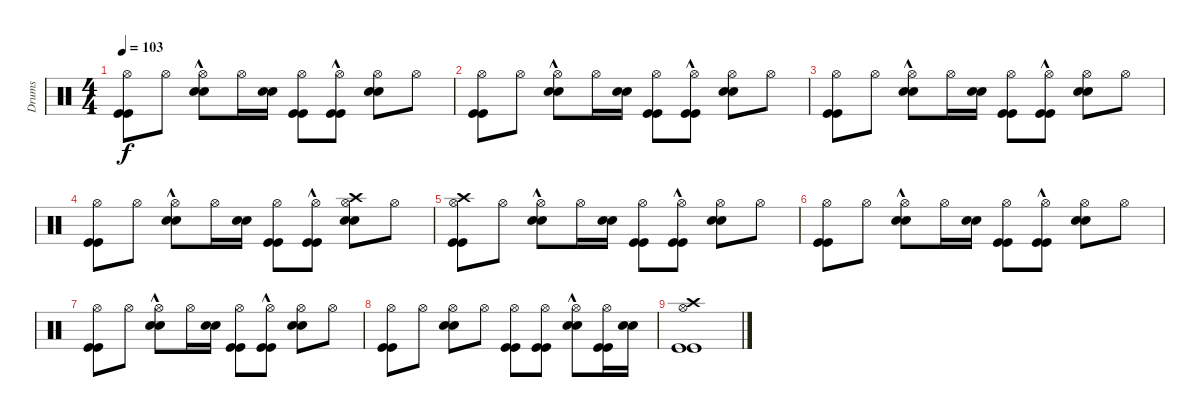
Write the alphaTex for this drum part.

\track ("Drums" "Drums") {instrument percussion}
\staff {score}
\articulation defaults
\ts (4 4)
\tempo 103
\clef neutral
\ks c
("Kick (hit)" "Kick (hit)" "Hi-Hat (open)").8{dy f} "Hi-Hat (open)".8 ("Snare (hit) 2"{hac} "Snare (hit) 2"{hac} "Hi-Hat (open)").8 "Hi-Hat (open)".16 ("Snare (hit) 2" "Snare (hit) 2").16 ("Kick (hit)" "Kick (hit)" "Hi-Hat (open)").8 ("Kick (hit)"{hac} "Kick (hit)"{hac} "Hi-Hat (open)").8 ("Snare (hit) 2" "Snare (hit) 2" "Hi-Hat (open)").8 "Hi-Hat (open)".8 |
("Kick (hit)" "Kick (hit)" "Hi-Hat (open)").8 "Hi-Hat (open)".8 ("Snare (hit) 2"{hac} "Snare (hit) 2"{hac} "Hi-Hat (open)").8 "Hi-Hat (open)".16 ("Snare (hit) 2" "Snare (hit) 2").16 ("Kick (hit)" "Kick (hit)" "Hi-Hat (open)").8 ("Kick (hit)"{hac} "Kick (hit)"{hac} "Hi-Hat (open)").8 ("Snare (hit) 2" "Snare (hit) 2" "Hi-Hat (open)").8 "Hi-Hat (open)".8 |
("Kick (hit)" "Kick (hit)" "Hi-Hat (open)").8 "Hi-Hat (open)".8 ("Snare (hit) 2"{hac} "Snare (hit) 2"{hac} "Hi-Hat (open)").8 "Hi-Hat (open)".16 ("Snare (hit) 2" "Snare (hit) 2").16 ("Kick (hit)" "Kick (hit)" "Hi-Hat (open)").8 ("Kick (hit)"{hac} "Kick (hit)"{hac} "Hi-Hat (open)").8 ("Snare (hit) 2" "Snare (hit) 2" "Hi-Hat (open)").8 "Hi-Hat (open)".8 |
("Kick (hit)" "Kick (hit)" "Hi-Hat (open)").8 "Hi-Hat (open)".8 ("Snare (hit) 2"{hac} "Snare (hit) 2"{hac} "Hi-Hat (open)").8 "Hi-Hat (open)".16 ("Snare (hit) 2" "Snare (hit) 2").16 ("Kick (hit)" "Kick (hit)" "Hi-Hat (open)").8 ("Kick (hit)"{hac} "Kick (hit)"{hac} "Hi-Hat (open)").8 ("Snare (hit) 2" "Snare (hit) 2" "Hi-Hat (open)" "Crash high (hit)").8 "Hi-Hat (open)".8 |
("Kick (hit)" "Kick (hit)" "Hi-Hat (open)" "Crash high (hit)").8 "Hi-Hat (open)".8 ("Snare (hit) 2"{hac} "Snare (hit) 2"{hac} "Hi-Hat (open)").8 "Hi-Hat (open)".16 ("Snare (hit) 2" "Snare (hit) 2").16 ("Kick (hit)" "Kick (hit)" "Hi-Hat (open)").8 ("Kick (hit)"{hac} "Kick (hit)"{hac} "Hi-Hat (open)").8 ("Snare (hit) 2" "Snare (hit) 2" "Hi-Hat (open)").8 "Hi-Hat (open)".8 |
("Kick (hit)" "Kick (hit)" "Hi-Hat (open)").8 "Hi-Hat (open)".8 ("Snare (hit) 2"{hac} "Snare (hit) 2"{hac} "Hi-Hat (open)").8 "Hi-Hat (open)".16 ("Snare (hit) 2" "Snare (hit) 2").16 ("Kick (hit)" "Kick (hit)" "Hi-Hat (open)").8 ("Kick (hit)"{hac} "Kick (hit)"{hac} "Hi-Hat (open)").8 ("Snare (hit) 2" "Snare (hit) 2" "Hi-Hat (open)").8 "Hi-Hat (open)".8 |
("Kick (hit)" "Kick (hit)" "Hi-Hat (open)").8 "Hi-Hat (open)".8 ("Snare (hit) 2"{hac} "Snare (hit) 2"{hac} "Hi-Hat (open)").8 "Hi-Hat (open)".16 ("Snare (hit) 2" "Snare (hit) 2").16 ("Kick (hit)" "Kick (hit)" "Hi-Hat (open)").8 ("Kick (hit)"{hac} "Kick (hit)"{hac} "Hi-Hat (open)").8 ("Snare (hit) 2" "Snare (hit) 2" "Hi-Hat (open)").8 "Hi-Hat (open)".8 |
("Kick (hit)" "Kick (hit)" "Hi-Hat (open)").8 "Hi-Hat (open)".8 ("Snare (hit) 2" "Snare (hit) 2" "Hi-Hat (open)").8 "Hi-Hat (open)".8 ("Kick (hit)" "Kick (hit)" "Hi-Hat (open)").8 ("Kick (hit)" "Kick (hit)" "Hi-Hat (open)").8 ("Snare (hit) 2"{hac} "Snare (hit) 2"{hac} "Hi-Hat (open)").8 ("Kick (hit)" "Kick (hit)" "Hi-Hat (open)").16 ("Snare (hit) 2" "Snare (hit) 2").16 |
("Kick (hit)" "Kick (hit)" "Hi-Hat (open)" "Crash high (hit)").1
